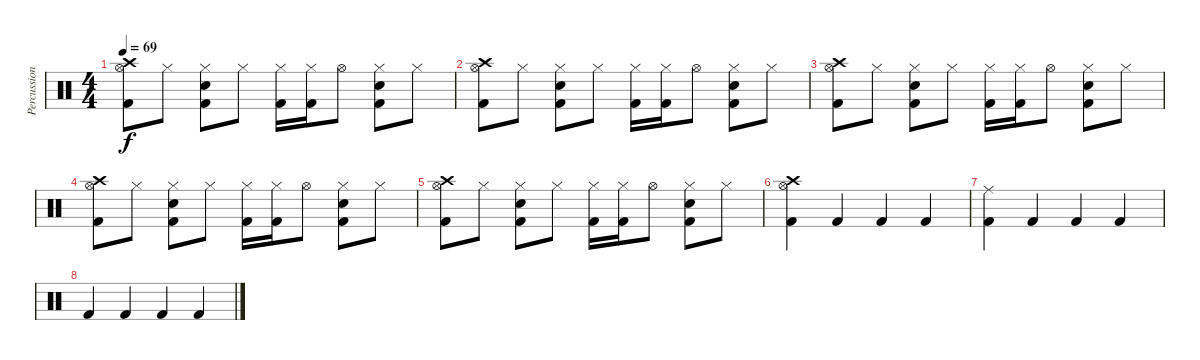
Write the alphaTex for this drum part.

\track ("Percussion: Mark Williams" "Percussion") {instrument percussion}
\staff {score}
\articulation defaults
\ts (4 4)
\tempo 69
\clef neutral
\ks c
("Crash high (hit)" "Hi-Hat (open)" "Kick (hit) 2").8{dy f} "Hi-Hat (closed)".8 ("Hi-Hat (closed)" "Snare (hit) 2" "Kick (hit) 2").8 "Hi-Hat (closed)".8 ("Hi-Hat (closed)" "Kick (hit) 2").16 ("Hi-Hat (closed)" "Kick (hit) 2").16 "Hi-Hat (open)".8 ("Hi-Hat (closed)" "Snare (hit) 2" "Kick (hit) 2").8 "Hi-Hat (closed)".8 |
("Crash high (hit)" "Hi-Hat (open)" "Kick (hit) 2").8 "Hi-Hat (closed)".8 ("Hi-Hat (closed)" "Snare (hit) 2" "Kick (hit) 2").8 "Hi-Hat (closed)".8 ("Hi-Hat (closed)" "Kick (hit) 2").16 ("Hi-Hat (closed)" "Kick (hit) 2").16 "Hi-Hat (open)".8 ("Hi-Hat (closed)" "Snare (hit) 2" "Kick (hit) 2").8 "Hi-Hat (closed)".8 |
("Crash high (hit)" "Hi-Hat (open)" "Kick (hit) 2").8 "Hi-Hat (closed)".8 ("Hi-Hat (closed)" "Snare (hit) 2" "Kick (hit) 2").8 "Hi-Hat (closed)".8 ("Hi-Hat (closed)" "Kick (hit) 2").16 ("Hi-Hat (closed)" "Kick (hit) 2").16 "Hi-Hat (open)".8 ("Hi-Hat (closed)" "Snare (hit) 2" "Kick (hit) 2").8 "Hi-Hat (closed)".8 |
("Crash high (hit)" "Hi-Hat (open)" "Kick (hit) 2").8 "Hi-Hat (closed)".8 ("Hi-Hat (closed)" "Snare (hit) 2" "Kick (hit) 2").8 "Hi-Hat (closed)".8 ("Hi-Hat (closed)" "Kick (hit) 2").16 ("Hi-Hat (closed)" "Kick (hit) 2").16 "Hi-Hat (open)".8 ("Hi-Hat (closed)" "Snare (hit) 2" "Kick (hit) 2").8 "Hi-Hat (closed)".8 |
("Crash high (hit)" "Hi-Hat (open)" "Kick (hit) 2").8 "Hi-Hat (closed)".8 ("Hi-Hat (closed)" "Snare (hit) 2" "Kick (hit) 2").8 "Hi-Hat (closed)".8 ("Hi-Hat (closed)" "Kick (hit) 2").16 ("Hi-Hat (closed)" "Kick (hit) 2").16 "Hi-Hat (open)".8 ("Hi-Hat (closed)" "Snare (hit) 2" "Kick (hit) 2").8 "Hi-Hat (closed)".8 |
("Crash high (hit)" "Hi-Hat (open)" "Kick (hit) 2").4 "Kick (hit) 2".4 "Kick (hit) 2".4 "Kick (hit) 2".4 |
("Ride (middle)" "Kick (hit) 2").4 "Kick (hit) 2".4{volume 0} "Kick (hit) 2".4 "Kick (hit) 2".4 |
"Kick (hit) 2".4 "Kick (hit) 2".4 "Kick (hit) 2".4 "Kick (hit) 2".4
